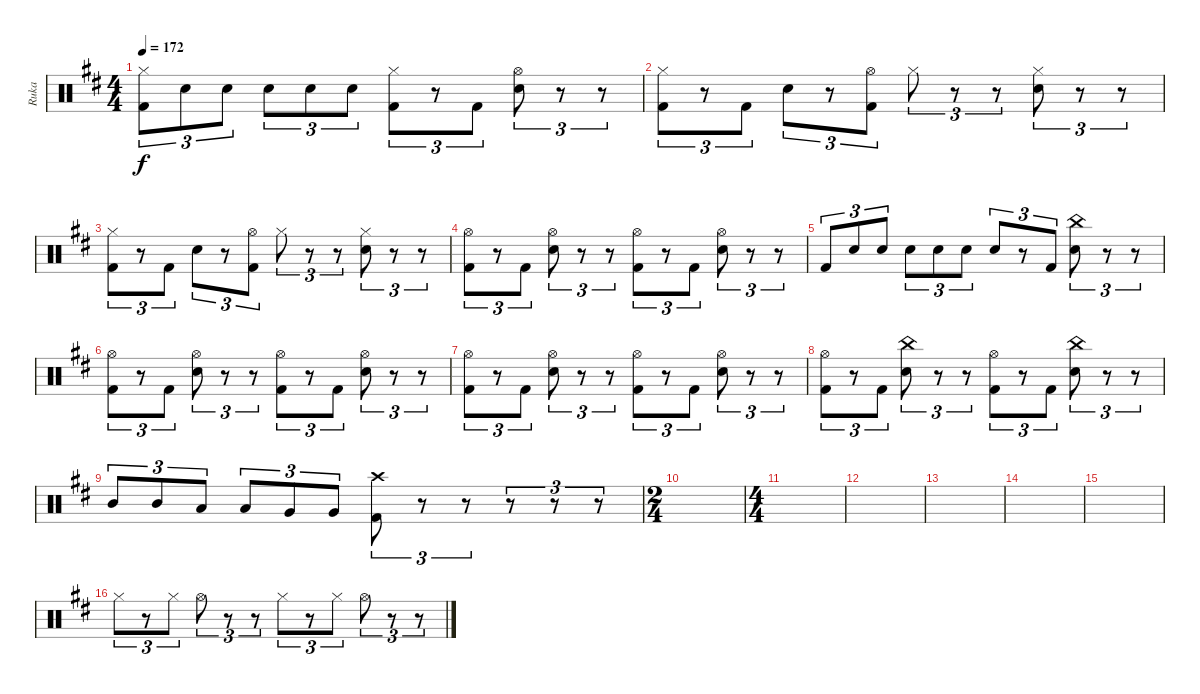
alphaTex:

\track ("Ruka" "Ruka") {instrument percussion}
\staff {score}
\articulation defaults
\ts (4 4)
\tempo 172
\clef neutral
\ks bminor
("Kick (hit) 2" "Hi-Hat (closed)").8{tu (3 2) dy f} "Electric Snare (hit)".8{tu (3 2)} "Electric Snare (hit)".8{tu (3 2)} "Electric Snare (hit)".8{tu (3 2)} "Electric Snare (hit)".8{tu (3 2)} "Electric Snare (hit)".8{tu (3 2)} ("Hi-Hat (closed)" "Kick (hit) 2").8{tu (3 2)} r.8{tu (3 2)} "Kick (hit) 2".8{tu (3 2)} ("Hi-Hat (open)" "Electric Snare (hit)").8{tu (3 2)} r.8{tu (3 2)} r.8{tu (3 2)} |
("Kick (hit) 2" "Hi-Hat (closed)").8{tu (3 2)} r.8{tu (3 2)} "Kick (hit) 2".8{tu (3 2)} "Electric Snare (hit)".8{tu (3 2)} r.8{tu (3 2)} ("Kick (hit) 2" "Hi-Hat (open)").8{tu (3 2)} "Hi-Hat (closed)".8{tu (3 2)} r.8{tu (3 2)} r.8{tu (3 2)} ("Hi-Hat (closed)" "Electric Snare (hit)").8{tu (3 2)} r.8{tu (3 2)} r.8{tu (3 2)} |
("Kick (hit) 2" "Hi-Hat (closed)").8{tu (3 2)} r.8{tu (3 2)} "Kick (hit) 2".8{tu (3 2)} "Electric Snare (hit)".8{tu (3 2)} r.8{tu (3 2)} ("Kick (hit) 2" "Hi-Hat (open)").8{tu (3 2)} "Hi-Hat (closed)".8{tu (3 2)} r.8{tu (3 2)} r.8{tu (3 2)} ("Hi-Hat (closed)" "Electric Snare (hit)").8{tu (3 2)} r.8{tu (3 2)} r.8{tu (3 2)} |
("Kick (hit) 2" "Hi-Hat (open)").8{tu (3 2)} r.8{tu (3 2)} "Kick (hit) 2".8{tu (3 2)} ("Electric Snare (hit)" "Hi-Hat (open)").8{tu (3 2)} r.8{tu (3 2)} r.8{tu (3 2)} ("Kick (hit) 2" "Hi-Hat (open)").8{tu (3 2)} r.8{tu (3 2)} "Kick (hit) 2".8{tu (3 2)} ("Electric Snare (hit)" "Hi-Hat (open)").8{tu (3 2)} r.8{tu (3 2)} r.8{tu (3 2)} |
"Kick (hit) 2".8{tu (3 2)} "Electric Snare (hit)".8{tu (3 2)} "Electric Snare (hit)".8{tu (3 2)} "Electric Snare (hit)".8{tu (3 2)} "Electric Snare (hit)".8{tu (3 2)} "Electric Snare (hit)".8{tu (3 2)} "Electric Snare (hit)".8{tu (3 2)} r.8{tu (3 2)} "Kick (hit) 2".8{tu (3 2)} ("Electric Snare (hit)" "China (hit)").8{tu (3 2)} r.8{tu (3 2)} r.8{tu (3 2)} |
("Kick (hit) 2" "Hi-Hat (open)").8{tu (3 2)} r.8{tu (3 2)} "Kick (hit) 2".8{tu (3 2)} ("Electric Snare (hit)" "Hi-Hat (open)").8{tu (3 2)} r.8{tu (3 2)} r.8{tu (3 2)} ("Kick (hit) 2" "Hi-Hat (open)").8{tu (3 2)} r.8{tu (3 2)} "Kick (hit) 2".8{tu (3 2)} ("Electric Snare (hit)" "Hi-Hat (open)").8{tu (3 2)} r.8{tu (3 2)} r.8{tu (3 2)} |
("Kick (hit) 2" "Hi-Hat (open)").8{tu (3 2)} r.8{tu (3 2)} "Kick (hit) 2".8{tu (3 2)} ("Electric Snare (hit)" "Hi-Hat (open)").8{tu (3 2)} r.8{tu (3 2)} r.8{tu (3 2)} ("Kick (hit) 2" "Hi-Hat (open)").8{tu (3 2)} r.8{tu (3 2)} "Kick (hit) 2".8{tu (3 2)} ("Electric Snare (hit)" "Hi-Hat (open)").8{tu (3 2)} r.8{tu (3 2)} r.8{tu (3 2)} |
("Kick (hit) 2" "Hi-Hat (open)").8{tu (3 2)} r.8{tu (3 2)} "Kick (hit) 2".8{tu (3 2)} ("Electric Snare (hit)" "China (hit)").8{tu (3 2)} r.8{tu (3 2)} r.8{tu (3 2)} ("Kick (hit) 2" "Hi-Hat (open)").8{tu (3 2)} r.8{tu (3 2)} "Kick (hit) 2".8{tu (3 2)} ("Electric Snare (hit)" "China (hit)").8{tu (3 2)} r.8{tu (3 2)} r.8{tu (3 2)} |
"Mid Tom (hit)".8{tu (3 2)} "Mid Tom (hit)".8{tu (3 2)} "Low Tom (hit)".8{tu (3 2)} "Low Tom (hit)".8{tu (3 2)} "Very Low Tom (hit)".8{tu (3 2)} "Very Low Tom (hit)".8{tu (3 2)} ("Kick (hit) 2" "Crash high (hit)").8{tu (3 2)} r.8{tu (3 2)} r.8{tu (3 2)} r.8{tu (3 2)} r.8{tu (3 2)} r.8{tu (3 2)} |
\ts (2 4)
|
\ts (4 4)
|
|
|
|
|
"Hi-Hat (closed)".8{tu (3 2)} r.8{tu (3 2)} "Hi-Hat (closed)".8{tu (3 2)} "Hi-Hat (open)".8{tu (3 2)} r.8{tu (3 2)} r.8{tu (3 2)} "Hi-Hat (closed)".8{tu (3 2)} r.8{tu (3 2)} "Hi-Hat (closed)".8{tu (3 2)} "Hi-Hat (open)".8{tu (3 2)} r.8{tu (3 2)} r.8{tu (3 2)}
